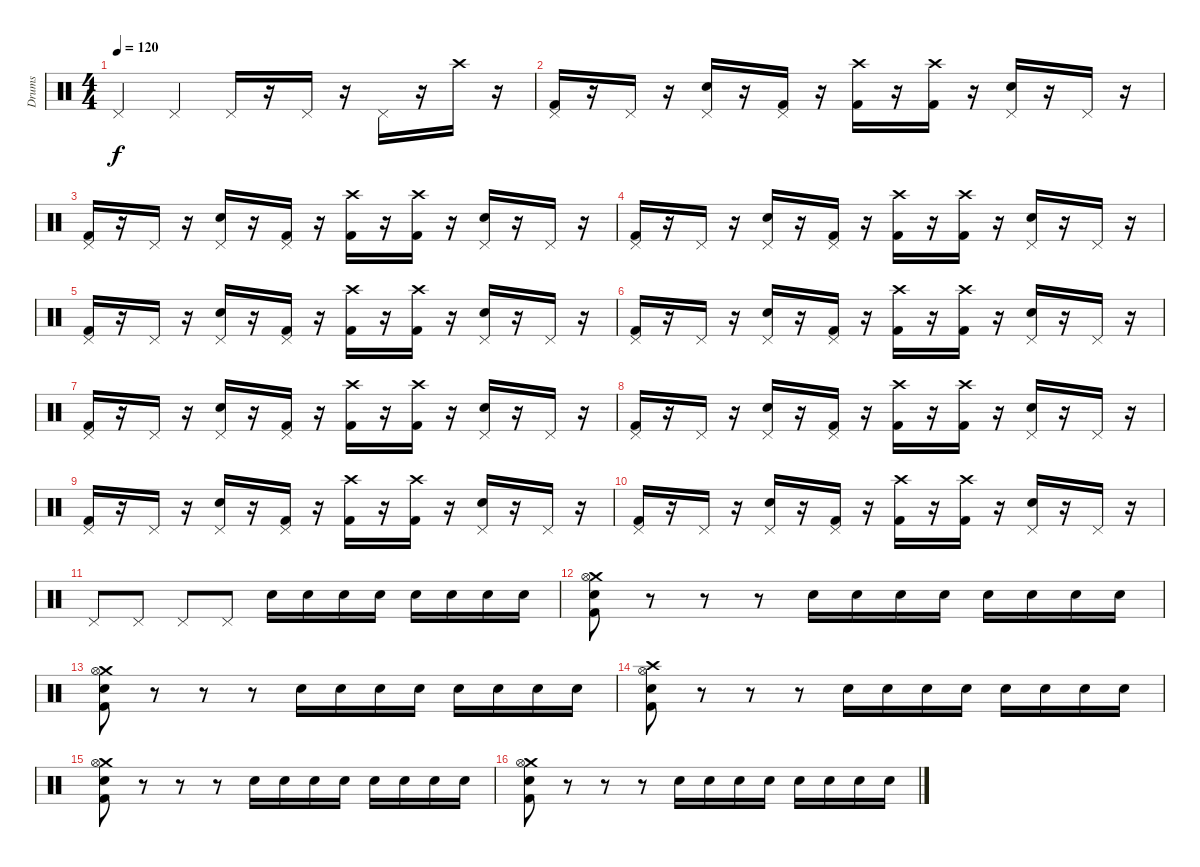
\track ("Drums" "Drums") {instrument percussion}
\staff {score}
\articulation defaults
\ts (4 4)
\tempo 120
\clef neutral
\ks c "Pedal Hi-Hat (hit)".4{dy f} "Pedal Hi-Hat (hit)".4 "Pedal Hi-Hat (hit)".16
r.16 "Pedal Hi-Hat (hit)".16 r.16 "Pedal Hi-Hat (hit)".16 r.16 "Crash high (hit)".16 r.16 |
("Pedal Hi-Hat (hit)" "Kick (hit) 2").16 r.16 "Pedal Hi-Hat (hit)".16 r.16 ("Pedal Hi-Hat (hit)" "Snare (hit) 2").16 r.16 ("Pedal Hi-Hat (hit)" "Kick (hit) 2").16 r.16 ("Crash high (hit)" "Kick (hit) 2").16 r.16 ("Crash high (hit)" "Kick (hit) 2").16 r.16 ("Pedal Hi-Hat (hit)" "Snare (hit) 2").16 r.16 "Pedal Hi-Hat (hit)".16 r.16 |
("Pedal Hi-Hat (hit)" "Kick (hit) 2").16 r.16 "Pedal Hi-Hat (hit)".16 r.16 ("Pedal Hi-Hat (hit)" "Snare (hit) 2").16 r.16 ("Pedal Hi-Hat (hit)" "Kick (hit) 2").16 r.16 ("Crash high (hit)" "Kick (hit) 2").16 r.16 ("Crash high (hit)" "Kick (hit) 2").16 r.16 ("Pedal Hi-Hat (hit)" "Snare (hit) 2").16 r.16 "Pedal Hi-Hat (hit)".16 r.16 |
("Pedal Hi-Hat (hit)" "Kick (hit) 2").16 r.16 "Pedal Hi-Hat (hit)".16 r.16 ("Pedal Hi-Hat (hit)" "Snare (hit) 2").16 r.16 ("Pedal Hi-Hat (hit)" "Kick (hit) 2").16 r.16 ("Crash high (hit)" "Kick (hit) 2").16 r.16 ("Crash high (hit)" "Kick (hit) 2").16 r.16 ("Pedal Hi-Hat (hit)" "Snare (hit) 2").16 r.16 "Pedal Hi-Hat (hit)".16 r.16 |
("Pedal Hi-Hat (hit)" "Kick (hit) 2").16 r.16 "Pedal Hi-Hat (hit)".16 r.16 ("Pedal Hi-Hat (hit)" "Snare (hit) 2").16 r.16 ("Pedal Hi-Hat (hit)" "Kick (hit) 2").16 r.16 ("Crash high (hit)" "Kick (hit) 2").16 r.16 ("Crash high (hit)" "Kick (hit) 2").16 r.16 ("Pedal Hi-Hat (hit)" "Snare (hit) 2").16 r.16 "Pedal Hi-Hat (hit)".16 r.16 |
("Pedal Hi-Hat (hit)" "Kick (hit) 2").16 r.16 "Pedal Hi-Hat (hit)".16 r.16 ("Pedal Hi-Hat (hit)" "Snare (hit) 2").16 r.16 ("Pedal Hi-Hat (hit)" "Kick (hit) 2").16 r.16 ("Crash high (hit)" "Kick (hit) 2").16 r.16 ("Crash high (hit)" "Kick (hit) 2").16 r.16 ("Pedal Hi-Hat (hit)" "Snare (hit) 2").16 r.16 "Pedal Hi-Hat (hit)".16 r.16 |
("Pedal Hi-Hat (hit)" "Kick (hit) 2").16 r.16 "Pedal Hi-Hat (hit)".16 r.16 ("Pedal Hi-Hat (hit)" "Snare (hit) 2").16 r.16 ("Pedal Hi-Hat (hit)" "Kick (hit) 2").16 r.16 ("Crash high (hit)" "Kick (hit) 2").16 r.16 ("Crash high (hit)" "Kick (hit) 2").16 r.16 ("Pedal Hi-Hat (hit)" "Snare (hit) 2").16 r.16 "Pedal Hi-Hat (hit)".16 r.16 |
("Pedal Hi-Hat (hit)" "Kick (hit) 2").16 r.16 "Pedal Hi-Hat (hit)".16 r.16 ("Pedal Hi-Hat (hit)" "Snare (hit) 2").16 r.16 ("Pedal Hi-Hat (hit)" "Kick (hit) 2").16 r.16 ("Crash high (hit)" "Kick (hit) 2").16 r.16 ("Crash high (hit)" "Kick (hit) 2").16 r.16 ("Pedal Hi-Hat (hit)" "Snare (hit) 2").16 r.16 "Pedal Hi-Hat (hit)".16 r.16 |
("Pedal Hi-Hat (hit)" "Kick (hit) 2").16 r.16 "Pedal Hi-Hat (hit)".16 r.16 ("Pedal Hi-Hat (hit)" "Snare (hit) 2").16 r.16 ("Pedal Hi-Hat (hit)" "Kick (hit) 2").16 r.16 ("Crash high (hit)" "Kick (hit) 2").16 r.16 ("Crash high (hit)" "Kick (hit) 2").16 r.16 ("Pedal Hi-Hat (hit)" "Snare (hit) 2").16 r.16 "Pedal Hi-Hat (hit)".16 r.16 |
("Pedal Hi-Hat (hit)" "Kick (hit) 2").16 r.16 "Pedal Hi-Hat (hit)".16 r.16 ("Pedal Hi-Hat (hit)" "Snare (hit) 2").16 r.16 ("Pedal Hi-Hat (hit)" "Kick (hit) 2").16 r.16 ("Crash high (hit)" "Kick (hit) 2").16 r.16 ("Crash high (hit)" "Kick (hit) 2").16 r.16 ("Pedal Hi-Hat (hit)" "Snare (hit) 2").16 r.16 "Pedal Hi-Hat (hit)".16 r.16 |
"Pedal Hi-Hat (hit)".8 "Pedal Hi-Hat (hit)".8 "Pedal Hi-Hat (hit)".8 "Pedal Hi-Hat (hit)".8 "Snare (hit) 2".16 "Snare (hit) 2".16 "Snare (hit) 2".16 "Snare (hit) 2".16 "Snare (hit) 2".16 "Snare (hit) 2".16 "Snare (hit) 2".16 "Snare (hit) 2".16 |
("Crash medium (hit)" "Hi-Hat (open)" "Snare (hit) 2" "Kick (hit) 2").8 r.8 r.8 r.8 "Snare (hit) 2".16 "Snare (hit) 2".16 "Snare (hit) 2".16 "Snare (hit) 2".16 "Snare (hit) 2".16 "Snare (hit) 2".16 "Snare (hit) 2".16 "Snare (hit) 2".16 |
("Crash medium (hit)" "Hi-Hat (open)" "Snare (hit) 2" "Kick (hit) 2").8 r.8 r.8 r.8 "Snare (hit) 2".16 "Snare (hit) 2".16 "Snare (hit) 2".16 "Snare (hit) 2".16 "Snare (hit) 2".16 "Snare (hit) 2".16 "Snare (hit) 2".16 "Snare (hit) 2".16 |
("Crash high (hit)" "Hi-Hat (open)" "Snare (hit) 2" "Kick (hit) 2").8 r.8 r.8 r.8 "Snare (hit) 2".16 "Snare (hit) 2".16 "Snare (hit) 2".16 "Snare (hit) 2".16 "Snare (hit) 2".16 "Snare (hit) 2".16 "Snare (hit) 2".16 "Snare (hit) 2".16 |
("Crash medium (hit)" "Hi-Hat (open)" "Snare (hit) 2" "Kick (hit) 2").8 r.8 r.8 r.8 "Snare (hit) 2".16 "Snare (hit) 2".16 "Snare (hit) 2".16 "Snare (hit) 2".16 "Snare (hit) 2".16 "Snare (hit) 2".16 "Snare (hit) 2".16 "Snare (hit) 2".16 |
("Crash medium (hit)" "Hi-Hat (open)" "Snare (hit) 2" "Kick (hit) 2").8 r.8 r.8 r.8 "Snare (hit) 2".16 "Snare (hit) 2".16 "Snare (hit) 2".16 "Snare (hit) 2".16 "Snare (hit) 2".16 "Snare (hit) 2".16 "Snare (hit) 2".16 "Snare (hit) 2".16
